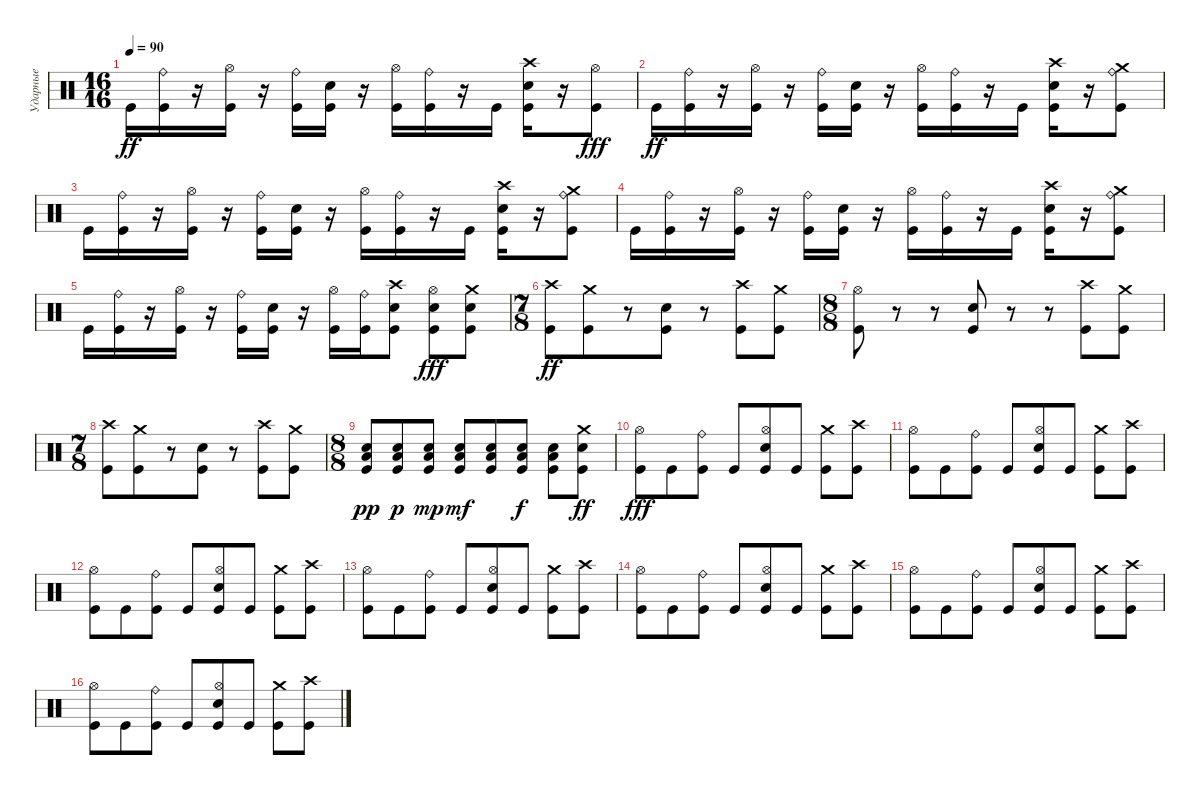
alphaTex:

\track ("Ударные" "Ударные") {instrument percussion}
\staff {score}
\articulation defaults
\ts (16 16)
\tempo 90
\clef neutral
\ks c "Kick (hit)".16{dy ff}
("Ride (bell)" "Kick (hit)").16 r.16 ("Hi-Hat (open)" "Kick (hit)").16 r.16 ("Ride (bell)" "Kick (hit)").16 ("Snare (hit) 2" "Kick (hit)").16 r.16 ("Hi-Hat (open)" "Kick (hit)").16 ("Ride (bell)" "Kick (hit)").16 r.16 "Kick (hit)".16 ("Crash high (hit)" "Snare (hit) 2" "Kick (hit)").16 r.16 ("Kick (hit)" "Hi-Hat (open)").8{dy fff} |
"Kick (hit)".16{dy ff} ("Ride (bell)" "Kick (hit)").16 r.16 ("Hi-Hat (open)" "Kick (hit)").16 r.16 ("Ride (bell)" "Kick (hit)").16 ("Snare (hit) 2" "Kick (hit)").16 r.16 ("Hi-Hat (open)" "Kick (hit)").16 ("Ride (bell)" "Kick (hit)").16 r.16 "Kick (hit)".16 ("Crash high (hit)" "Snare (hit) 2" "Kick (hit)").16 r.16 ("Crash medium (hit)" "Ride (bell)" "Kick (hit)").8 |
"Kick (hit)".16 ("Ride (bell)" "Kick (hit)").16 r.16 ("Hi-Hat (open)" "Kick (hit)").16 r.16 ("Ride (bell)" "Kick (hit)").16 ("Snare (hit) 2" "Kick (hit)").16 r.16 ("Hi-Hat (open)" "Kick (hit)").16 ("Ride (bell)" "Kick (hit)").16 r.16 "Kick (hit)".16 ("Crash high (hit)" "Snare (hit) 2" "Kick (hit)").16 r.16 ("Crash medium (hit)" "Ride (bell)" "Kick (hit)").8 |
"Kick (hit)".16 ("Ride (bell)" "Kick (hit)").16 r.16 ("Hi-Hat (open)" "Kick (hit)").16 r.16 ("Ride (bell)" "Kick (hit)").16 ("Snare (hit) 2" "Kick (hit)").16 r.16 ("Hi-Hat (open)" "Kick (hit)").16 ("Ride (bell)" "Kick (hit)").16 r.16 "Kick (hit)".16 ("Crash high (hit)" "Snare (hit) 2" "Kick (hit)").16 r.16 ("Crash medium (hit)" "Ride (bell)" "Kick (hit)").8 |
"Kick (hit)".16 ("Ride (bell)" "Kick (hit)").16 r.16 ("Hi-Hat (open)" "Kick (hit)").16 r.16 ("Ride (bell)" "Kick (hit)").16 ("Snare (hit) 2" "Kick (hit)").16 r.16 ("Hi-Hat (open)" "Kick (hit)").16 ("Ride (bell)" "Kick (hit)").16 ("Crash high (hit)" "Snare (hit) 2" "Kick (hit)").8 ("Hi-Hat (open)" "Snare (hit) 2" "Kick (hit)").8{dy fff} ("Crash medium (hit)" "Snare (hit) 2" "Kick (hit)").8 |
\ts (7 8)
("Crash high (hit)" "Kick (hit)").8{dy ff} ("Crash medium (hit)" "Kick (hit)").8 r.8 ("Snare (hit) 2" "Kick (hit)").8 r.8 ("Crash high (hit)" "Kick (hit)").8 ("Crash medium (hit)" "Kick (hit)").8 |
\ts (8 8)
("Hi-Hat (open)" "Kick (hit)").8 r.8 r.8 ("Snare (hit) 2" "Kick (hit)").8 r.8 r.8 ("Crash high (hit)" "Kick (hit)").8 ("Crash medium (hit)" "Kick (hit)").8 |
\ts (7 8)
("Crash high (hit)" "Kick (hit)").8 ("Crash medium (hit)" "Kick (hit)").8 r.8 ("Snare (hit) 2" "Kick (hit)").8 r.8 ("Crash high (hit)" "Kick (hit)").8 ("Crash medium (hit)" "Kick (hit)").8 |
\ts (8 8)
("Snare (hit) 2" "Low Floor Tom (hit)" "Kick (hit)").8{dy pp} ("Snare (hit) 2" "Low Floor Tom (hit)" "Kick (hit)").8{dy p} ("Snare (hit) 2" "Low Floor Tom (hit)" "Kick (hit)").8{dy mp} ("Snare (hit) 2" "Low Floor Tom (hit)" "Kick (hit)").8{dy mf} ("Snare (hit) 2" "Low Floor Tom (hit)" "Kick (hit)").8 ("Snare (hit) 2" "Low Floor Tom (hit)" "Kick (hit)").8{dy f} ("Snare (hit) 2" "Low Floor Tom (hit)" "Kick (hit)").8 ("Snare (hit) 2" "Crash medium (hit)" "Kick (hit)").8{dy ff} |
("Kick (hit)" "Hi-Hat (open)").8{dy fff} "Kick (hit)".8 ("Kick (hit)" "Ride (bell)").8 "Kick (hit)".8 ("Kick (hit)" "Snare (hit) 2" "Hi-Hat (open)").8 "Kick (hit)".8 ("Kick (hit)" "Crash medium (hit)").8 ("Kick (hit)" "Crash high (hit)").8 |
("Kick (hit)" "Hi-Hat (open)").8 "Kick (hit)".8 ("Kick (hit)" "Ride (bell)").8 "Kick (hit)".8 ("Kick (hit)" "Snare (hit) 2" "Hi-Hat (open)").8 "Kick (hit)".8 ("Kick (hit)" "Crash medium (hit)").8 ("Kick (hit)" "Crash high (hit)").8 |
("Kick (hit)" "Hi-Hat (open)").8 "Kick (hit)".8 ("Kick (hit)" "Ride (bell)").8 "Kick (hit)".8 ("Kick (hit)" "Snare (hit) 2" "Hi-Hat (open)").8 "Kick (hit)".8 ("Kick (hit)" "Crash medium (hit)").8 ("Kick (hit)" "Crash high (hit)").8 |
("Kick (hit)" "Hi-Hat (open)").8 "Kick (hit)".8 ("Kick (hit)" "Ride (bell)").8 "Kick (hit)".8 ("Kick (hit)" "Snare (hit) 2" "Hi-Hat (open)").8 "Kick (hit)".8 ("Kick (hit)" "Crash medium (hit)").8 ("Kick (hit)" "Crash high (hit)").8 |
("Kick (hit)" "Hi-Hat (open)").8 "Kick (hit)".8 ("Kick (hit)" "Ride (bell)").8 "Kick (hit)".8 ("Kick (hit)" "Snare (hit) 2" "Hi-Hat (open)").8 "Kick (hit)".8 ("Kick (hit)" "Crash medium (hit)").8 ("Kick (hit)" "Crash high (hit)").8 |
("Kick (hit)" "Hi-Hat (open)").8 "Kick (hit)".8 ("Kick (hit)" "Ride (bell)").8 "Kick (hit)".8 ("Kick (hit)" "Snare (hit) 2" "Hi-Hat (open)").8 "Kick (hit)".8 ("Kick (hit)" "Crash medium (hit)").8 ("Kick (hit)" "Crash high (hit)").8 |
("Kick (hit)" "Hi-Hat (open)").8 "Kick (hit)".8 ("Kick (hit)" "Ride (bell)").8 "Kick (hit)".8 ("Kick (hit)" "Snare (hit) 2" "Hi-Hat (open)").8 "Kick (hit)".8 ("Kick (hit)" "Crash medium (hit)").8 ("Kick (hit)" "Crash high (hit)").8
